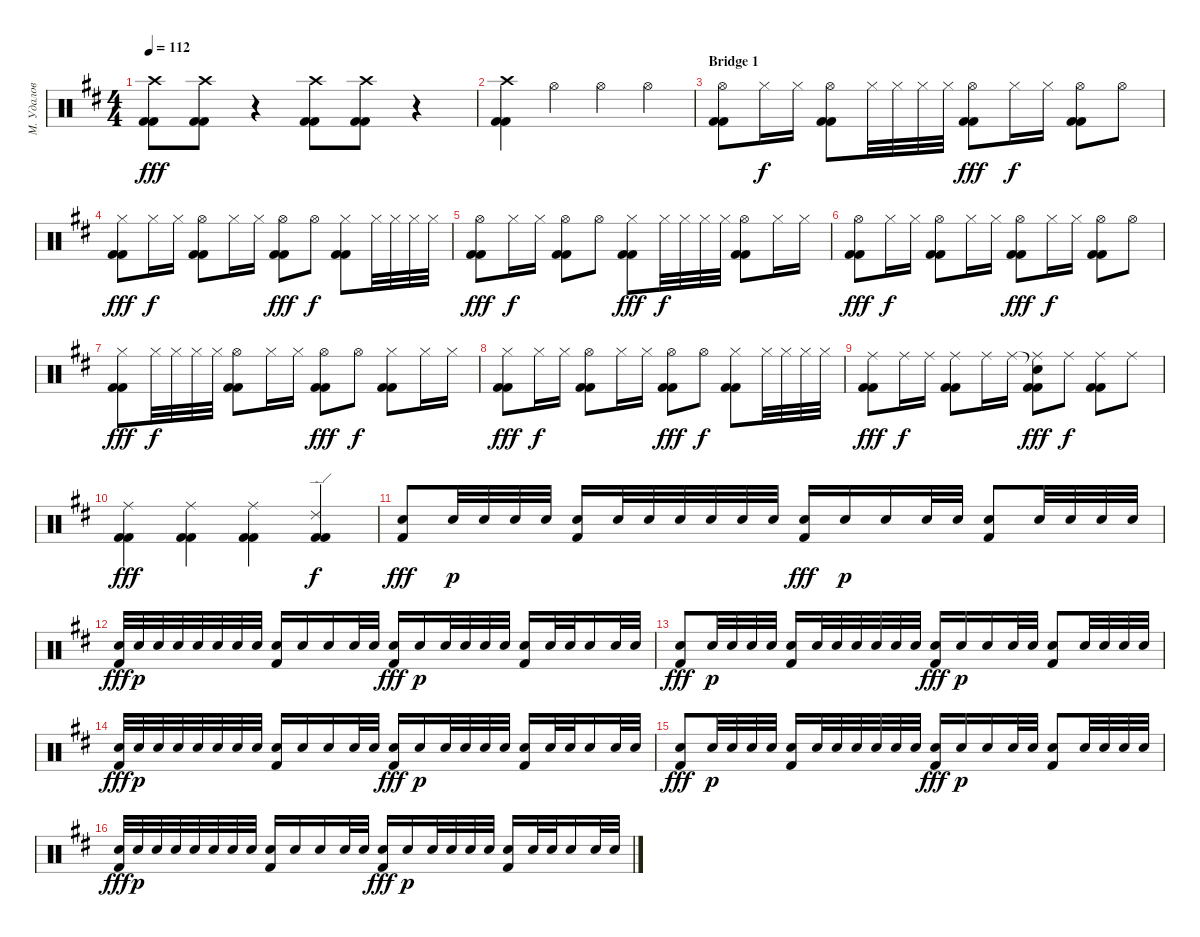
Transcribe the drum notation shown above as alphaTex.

\track ("М. Удалов" "М. Удалов") {instrument percussion}
\staff {score}
\articulation defaults
\ts (4 4)
\tempo 112
\clef neutral
\ks d
("Crash high (hit)" "Kick (hit) 2" "Kick (hit) 2").8{dy fff} ("Crash high (hit)" "Kick (hit) 2" "Kick (hit) 2").8 r.4 ("Crash high (hit)" "Kick (hit) 2" "Kick (hit) 2").8 ("Crash high (hit)" "Kick (hit) 2" "Kick (hit) 2").8 r.4 |
("Crash high (hit)" "Kick (hit) 2" "Kick (hit) 2").4 "Hi-Hat (open)".4 "Hi-Hat (open)".4 "Hi-Hat (open)".4 |
\section ("" "Bridge 1")
("Hi-Hat (open)" "Kick (hit) 2" "Kick (hit) 2").8 "Hi-Hat (closed)".16{dy f} "Hi-Hat (closed)".16 ("Hi-Hat (open)" "Kick (hit) 2" "Kick (hit) 2").8 "Hi-Hat (closed)".32 "Hi-Hat (closed)".32 "Hi-Hat (closed)".32 "Hi-Hat (closed)".32 ("Hi-Hat (open)" "Kick (hit) 2" "Kick (hit) 2").8{dy fff} "Hi-Hat (closed)".16{dy f} "Hi-Hat (closed)".16 ("Hi-Hat (open)" "Kick (hit) 2" "Kick (hit) 2").8 "Hi-Hat (open)".8 |
("Hi-Hat (closed)" "Kick (hit) 2" "Kick (hit) 2").8{dy fff} "Hi-Hat (closed)".16{dy f} "Hi-Hat (closed)".16 ("Hi-Hat (open)" "Kick (hit) 2" "Kick (hit) 2").8 "Hi-Hat (closed)".16 "Hi-Hat (closed)".16 ("Hi-Hat (open)" "Kick (hit) 2" "Kick (hit) 2").8{dy fff} "Hi-Hat (open)".8{dy f} ("Hi-Hat (closed)" "Kick (hit) 2" "Kick (hit) 2").8 "Hi-Hat (closed)".32 "Hi-Hat (closed)".32 "Hi-Hat (closed)".32 "Hi-Hat (closed)".32 |
("Hi-Hat (open)" "Kick (hit) 2" "Kick (hit) 2").8{dy fff} "Hi-Hat (closed)".16{dy f} "Hi-Hat (closed)".16 ("Hi-Hat (open)" "Kick (hit) 2" "Kick (hit) 2").8 "Hi-Hat (open)".8 ("Hi-Hat (closed)" "Kick (hit) 2" "Kick (hit) 2").8{dy fff} "Hi-Hat (closed)".32{dy f} "Hi-Hat (closed)".32 "Hi-Hat (closed)".32 "Hi-Hat (closed)".32 ("Hi-Hat (open)" "Kick (hit) 2" "Kick (hit) 2").8 "Hi-Hat (closed)".16 "Hi-Hat (closed)".16 |
("Hi-Hat (open)" "Kick (hit) 2" "Kick (hit) 2").8{dy fff} "Hi-Hat (closed)".16{dy f} "Hi-Hat (closed)".16 ("Hi-Hat (open)" "Kick (hit) 2" "Kick (hit) 2").8 "Hi-Hat (closed)".16 "Hi-Hat (closed)".16 ("Hi-Hat (open)" "Kick (hit) 2" "Kick (hit) 2").8{dy fff} "Hi-Hat (closed)".16{dy f} "Hi-Hat (closed)".16 ("Hi-Hat (open)" "Kick (hit) 2" "Kick (hit) 2").8 "Hi-Hat (open)".8 |
("Hi-Hat (closed)" "Kick (hit) 2" "Kick (hit) 2").8{dy fff} "Hi-Hat (closed)".32{dy f} "Hi-Hat (closed)".32 "Hi-Hat (closed)".32 "Hi-Hat (closed)".32 ("Hi-Hat (open)" "Kick (hit) 2" "Kick (hit) 2").8 "Hi-Hat (closed)".16 "Hi-Hat (closed)".16 ("Hi-Hat (open)" "Kick (hit) 2" "Kick (hit) 2").8{dy fff} "Hi-Hat (open)".8{dy f} ("Hi-Hat (closed)" "Kick (hit) 2" "Kick (hit) 2").8 "Hi-Hat (closed)".16 "Hi-Hat (closed)".16 |
("Hi-Hat (closed)" "Kick (hit) 2" "Kick (hit) 2").8{dy fff} "Hi-Hat (closed)".16{dy f} "Hi-Hat (closed)".16 ("Hi-Hat (open)" "Kick (hit) 2" "Kick (hit) 2").8 "Hi-Hat (closed)".16 "Hi-Hat (closed)".16 ("Hi-Hat (open)" "Kick (hit) 2" "Kick (hit) 2").8{dy fff} "Hi-Hat (open)".8{dy f} ("Hi-Hat (closed)" "Kick (hit) 2" "Kick (hit) 2").8 "Hi-Hat (closed)".32 "Hi-Hat (closed)".32 "Hi-Hat (closed)".32 "Hi-Hat (closed)".32 |
("Ride (middle)" "Kick (hit) 2" "Kick (hit) 2").8{dy fff} "Ride (middle)".16{dy f} "Ride (middle)".16 ("Ride (middle)" "Kick (hit) 2" "Kick (hit) 2").8 "Ride (middle)".16 "Ride (middle)".16 ("Snare (hit)"{t} "Ride (middle)" "Kick (hit) 2" "Kick (hit) 2").8{dy fff} "Ride (middle)".8{dy f} ("Ride (middle)" "Kick (hit) 2" "Kick (hit) 2").8 "Ride (middle)".8 |
("Ride (middle)" "Kick (hit) 2" "Kick (hit) 2").4{dy fff} ("Ride (middle)" "Kick (hit) 2" "Kick (hit) 2").4 ("Ride (middle)" "Kick (hit) 2" "Kick (hit) 2").4 ("Ride (edge) 2" "Kick (hit) 2" "Kick (hit) 2").4{dy f} |
("Electric Snare (hit)" "Kick (hit) 2").8{dy fff} "Electric Snare (hit)".32{dy p} "Electric Snare (hit)".32 "Electric Snare (hit)".32 "Electric Snare (hit)".32 ("Electric Snare (hit)" "Kick (hit) 2").16 "Electric Snare (hit)".32 "Electric Snare (hit)".32 "Electric Snare (hit)".32 "Electric Snare (hit)".32 "Electric Snare (hit)".32 "Electric Snare (hit)".32 ("Electric Snare (hit)" "Kick (hit) 2").16{dy fff} "Electric Snare (hit)".16{dy p} "Electric Snare (hit)".16 "Electric Snare (hit)".32 "Electric Snare (hit)".32 ("Electric Snare (hit)" "Kick (hit) 2").8 "Electric Snare (hit)".32 "Electric Snare (hit)".32 "Electric Snare (hit)".32 "Electric Snare (hit)".32 |
("Electric Snare (hit)" "Kick (hit) 2").32{dy fff} "Electric Snare (hit)".32{dy p} "Electric Snare (hit)".32 "Electric Snare (hit)".32 "Electric Snare (hit)".32 "Electric Snare (hit)".32 "Electric Snare (hit)".32 "Electric Snare (hit)".32 ("Electric Snare (hit)" "Kick (hit) 2").16 "Electric Snare (hit)".16 "Electric Snare (hit)".16 "Electric Snare (hit)".32 "Electric Snare (hit)".32 ("Electric Snare (hit)" "Kick (hit) 2").16{dy fff} "Electric Snare (hit)".16{dy p} "Electric Snare (hit)".32 "Electric Snare (hit)".32 "Electric Snare (hit)".32 "Electric Snare (hit)".32 ("Electric Snare (hit)" "Kick (hit) 2").16 "Electric Snare (hit)".32 "Electric Snare (hit)".32 "Electric Snare (hit)".16 "Electric Snare (hit)".32 "Electric Snare (hit)".32 |
("Electric Snare (hit)" "Kick (hit) 2").8{dy fff} "Electric Snare (hit)".32{dy p} "Electric Snare (hit)".32 "Electric Snare (hit)".32 "Electric Snare (hit)".32 ("Electric Snare (hit)" "Kick (hit) 2").16 "Electric Snare (hit)".32 "Electric Snare (hit)".32 "Electric Snare (hit)".32 "Electric Snare (hit)".32 "Electric Snare (hit)".32 "Electric Snare (hit)".32 ("Electric Snare (hit)" "Kick (hit) 2").16{dy fff} "Electric Snare (hit)".16{dy p} "Electric Snare (hit)".16 "Electric Snare (hit)".32 "Electric Snare (hit)".32 ("Electric Snare (hit)" "Kick (hit) 2").8 "Electric Snare (hit)".32 "Electric Snare (hit)".32 "Electric Snare (hit)".32 "Electric Snare (hit)".32 |
("Electric Snare (hit)" "Kick (hit) 2").32{dy fff} "Electric Snare (hit)".32{dy p} "Electric Snare (hit)".32 "Electric Snare (hit)".32 "Electric Snare (hit)".32 "Electric Snare (hit)".32 "Electric Snare (hit)".32 "Electric Snare (hit)".32 ("Electric Snare (hit)" "Kick (hit) 2").16 "Electric Snare (hit)".16 "Electric Snare (hit)".16 "Electric Snare (hit)".32 "Electric Snare (hit)".32 ("Electric Snare (hit)" "Kick (hit) 2").16{dy fff} "Electric Snare (hit)".16{dy p} "Electric Snare (hit)".32 "Electric Snare (hit)".32 "Electric Snare (hit)".32 "Electric Snare (hit)".32 ("Electric Snare (hit)" "Kick (hit) 2").16 "Electric Snare (hit)".32 "Electric Snare (hit)".32 "Electric Snare (hit)".16 "Electric Snare (hit)".32 "Electric Snare (hit)".32 |
("Electric Snare (hit)" "Kick (hit) 2").8{dy fff} "Electric Snare (hit)".32{dy p} "Electric Snare (hit)".32 "Electric Snare (hit)".32 "Electric Snare (hit)".32 ("Electric Snare (hit)" "Kick (hit) 2").16 "Electric Snare (hit)".32 "Electric Snare (hit)".32 "Electric Snare (hit)".32 "Electric Snare (hit)".32 "Electric Snare (hit)".32 "Electric Snare (hit)".32 ("Electric Snare (hit)" "Kick (hit) 2").16{dy fff} "Electric Snare (hit)".16{dy p} "Electric Snare (hit)".16 "Electric Snare (hit)".32 "Electric Snare (hit)".32 ("Electric Snare (hit)" "Kick (hit) 2").8 "Electric Snare (hit)".32 "Electric Snare (hit)".32 "Electric Snare (hit)".32 "Electric Snare (hit)".32 |
("Electric Snare (hit)" "Kick (hit) 2").32{dy fff} "Electric Snare (hit)".32{dy p} "Electric Snare (hit)".32 "Electric Snare (hit)".32 "Electric Snare (hit)".32 "Electric Snare (hit)".32 "Electric Snare (hit)".32 "Electric Snare (hit)".32 ("Electric Snare (hit)" "Kick (hit) 2").16 "Electric Snare (hit)".16 "Electric Snare (hit)".16 "Electric Snare (hit)".32 "Electric Snare (hit)".32 ("Electric Snare (hit)" "Kick (hit) 2").16{dy fff} "Electric Snare (hit)".16{dy p} "Electric Snare (hit)".32 "Electric Snare (hit)".32 "Electric Snare (hit)".32 "Electric Snare (hit)".32 ("Electric Snare (hit)" "Kick (hit) 2").16 "Electric Snare (hit)".32 "Electric Snare (hit)".32 "Electric Snare (hit)".16 "Electric Snare (hit)".32 "Electric Snare (hit)".32
